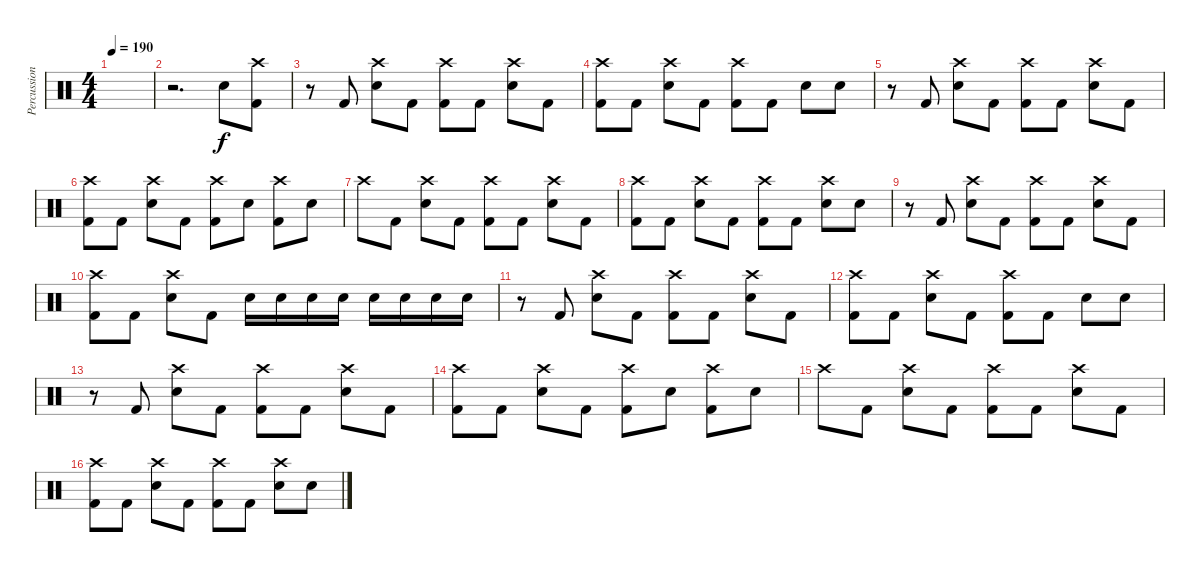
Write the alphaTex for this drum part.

\track ("Percussions" "Percussion") {instrument percussion}
\staff {score}
\articulation defaults
\ts (4 4)
\tempo 190
\clef neutral
\ks c
|
r.2{d} "Electric Snare (hit)".8 ("Crash high (hit)" "Kick (hit) 2").8 |
r.8 "Kick (hit) 2".8 ("Crash high (hit)" "Electric Snare (hit)").8 "Kick (hit) 2".8 ("Crash high (hit)" "Kick (hit) 2").8 "Kick (hit) 2".8 ("Crash high (hit)" "Electric Snare (hit)").8 "Kick (hit) 2".8 |
("Crash high (hit)" "Kick (hit) 2").8 "Kick (hit) 2".8 ("Crash high (hit)" "Electric Snare (hit)").8 "Kick (hit) 2".8 ("Crash high (hit)" "Kick (hit) 2").8 "Kick (hit) 2".8 "Electric Snare (hit)".8 "Electric Snare (hit)".8 |
r.8 "Kick (hit) 2".8 ("Crash high (hit)" "Electric Snare (hit)").8 "Kick (hit) 2".8 ("Crash high (hit)" "Kick (hit) 2").8 "Kick (hit) 2".8 ("Crash high (hit)" "Electric Snare (hit)").8 "Kick (hit) 2".8 |
("Crash high (hit)" "Kick (hit) 2").8 "Kick (hit) 2".8 ("Crash high (hit)" "Electric Snare (hit)").8 "Kick (hit) 2".8 ("Crash high (hit)" "Kick (hit) 2").8 "Electric Snare (hit)".8 ("Crash high (hit)" "Kick (hit) 2").8 "Electric Snare (hit)".8 |
"Crash high (hit)".8 "Kick (hit) 2".8 ("Crash high (hit)" "Electric Snare (hit)").8 "Kick (hit) 2".8 ("Crash high (hit)" "Kick (hit) 2").8 "Kick (hit) 2".8 ("Crash high (hit)" "Electric Snare (hit)").8 "Kick (hit) 2".8 |
("Crash high (hit)" "Kick (hit) 2").8 "Kick (hit) 2".8 ("Crash high (hit)" "Electric Snare (hit)").8 "Kick (hit) 2".8 ("Crash high (hit)" "Kick (hit) 2").8 "Kick (hit) 2".8 ("Crash high (hit)" "Electric Snare (hit)").8 "Electric Snare (hit)".8 |
r.8 "Kick (hit) 2".8 ("Crash high (hit)" "Electric Snare (hit)").8 "Kick (hit) 2".8 ("Crash high (hit)" "Kick (hit) 2").8 "Kick (hit) 2".8 ("Crash high (hit)" "Electric Snare (hit)").8 "Kick (hit) 2".8 |
("Crash high (hit)" "Kick (hit) 2").8 "Kick (hit) 2".8 ("Crash high (hit)" "Electric Snare (hit)").8 "Kick (hit) 2".8 "Electric Snare (hit)".16 "Electric Snare (hit)".16 "Electric Snare (hit)".16 "Electric Snare (hit)".16 "Electric Snare (hit)".16 "Electric Snare (hit)".16 "Electric Snare (hit)".16 "Electric Snare (hit)".16 |
r.8 "Kick (hit) 2".8 ("Crash high (hit)" "Electric Snare (hit)").8 "Kick (hit) 2".8 ("Crash high (hit)" "Kick (hit) 2").8 "Kick (hit) 2".8 ("Crash high (hit)" "Electric Snare (hit)").8 "Kick (hit) 2".8 |
("Crash high (hit)" "Kick (hit) 2").8 "Kick (hit) 2".8 ("Crash high (hit)" "Electric Snare (hit)").8 "Kick (hit) 2".8 ("Crash high (hit)" "Kick (hit) 2").8 "Kick (hit) 2".8 "Electric Snare (hit)".8 "Electric Snare (hit)".8 |
r.8 "Kick (hit) 2".8 ("Crash high (hit)" "Electric Snare (hit)").8 "Kick (hit) 2".8 ("Crash high (hit)" "Kick (hit) 2").8 "Kick (hit) 2".8 ("Crash high (hit)" "Electric Snare (hit)").8 "Kick (hit) 2".8 |
("Crash high (hit)" "Kick (hit) 2").8 "Kick (hit) 2".8 ("Crash high (hit)" "Electric Snare (hit)").8 "Kick (hit) 2".8 ("Crash high (hit)" "Kick (hit) 2").8 "Electric Snare (hit)".8 ("Crash high (hit)" "Kick (hit) 2").8 "Electric Snare (hit)".8 |
"Crash high (hit)".8 "Kick (hit) 2".8 ("Crash high (hit)" "Electric Snare (hit)").8 "Kick (hit) 2".8 ("Crash high (hit)" "Kick (hit) 2").8 "Kick (hit) 2".8 ("Crash high (hit)" "Electric Snare (hit)").8 "Kick (hit) 2".8 |
("Crash high (hit)" "Kick (hit) 2").8 "Kick (hit) 2".8 ("Crash high (hit)" "Electric Snare (hit)").8 "Kick (hit) 2".8 ("Crash high (hit)" "Kick (hit) 2").8 "Kick (hit) 2".8 ("Crash high (hit)" "Electric Snare (hit)").8 "Electric Snare (hit)".8
